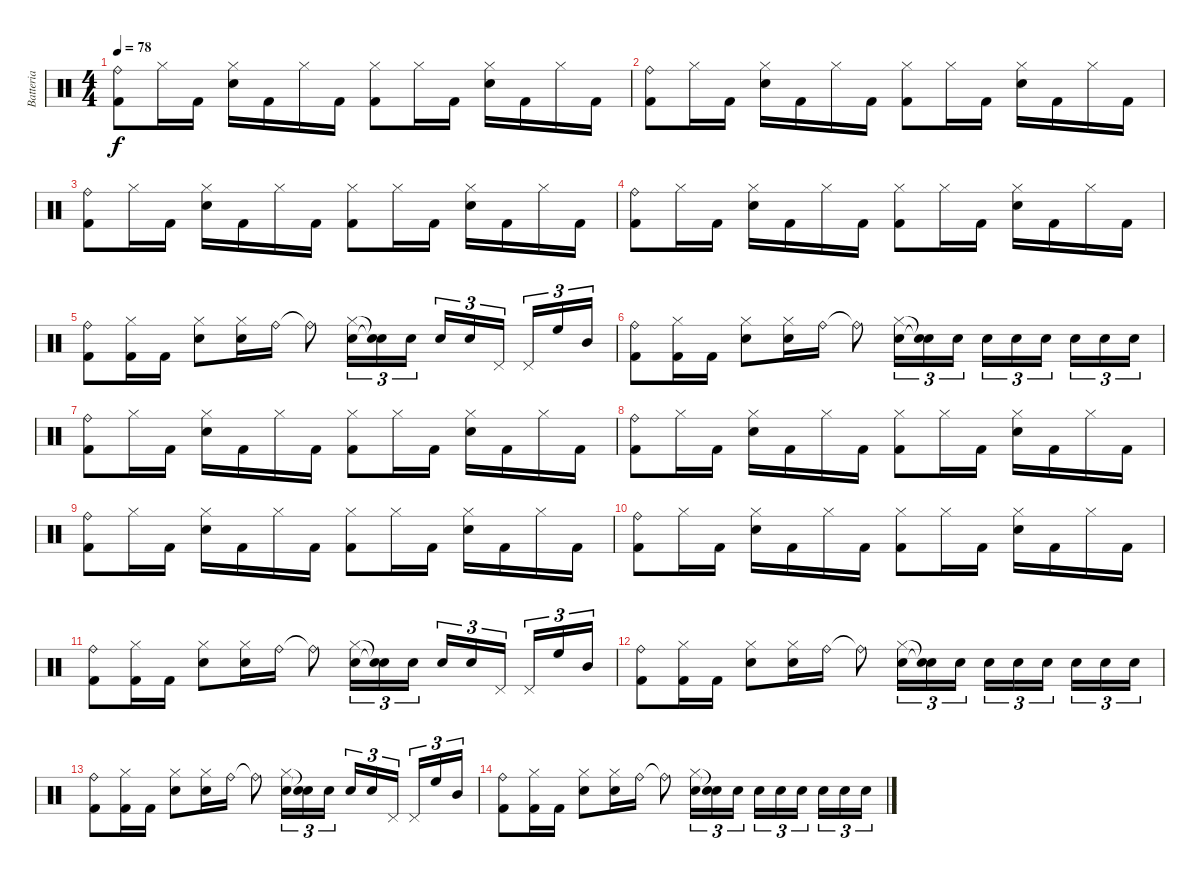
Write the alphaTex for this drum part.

\track ("Batteria" "Batteria") {instrument percussion}
\staff {score}
\articulation defaults
\ts (4 4)
\tempo 78
\clef neutral
\ks c
("Ride (bell)" "Kick (hit) 2").8{dy f} "Hi-Hat (closed)".16 "Kick (hit) 2".16 ("Hi-Hat (closed)" "Snare (hit) 2").16 "Kick (hit) 2".16 "Hi-Hat (closed)".16 "Kick (hit) 2".16 ("Hi-Hat (closed)" "Kick (hit) 2").8 "Hi-Hat (closed)".16 "Kick (hit) 2".16 ("Hi-Hat (closed)" "Snare (hit) 2").16 "Kick (hit) 2".16 "Hi-Hat (closed)".16 "Kick (hit) 2".16 |
("Ride (bell)" "Kick (hit) 2").8 "Hi-Hat (closed)".16 "Kick (hit) 2".16 ("Hi-Hat (closed)" "Snare (hit) 2").16 "Kick (hit) 2".16 "Hi-Hat (closed)".16 "Kick (hit) 2".16 ("Hi-Hat (closed)" "Kick (hit) 2").8 "Hi-Hat (closed)".16 "Kick (hit) 2".16 ("Hi-Hat (closed)" "Snare (hit) 2").16 "Kick (hit) 2".16 "Hi-Hat (closed)".16 "Kick (hit) 2".16 |
("Ride (bell)" "Kick (hit) 2").8 "Hi-Hat (closed)".16 "Kick (hit) 2".16 ("Hi-Hat (closed)" "Snare (hit) 2").16 "Kick (hit) 2".16 "Hi-Hat (closed)".16 "Kick (hit) 2".16 ("Hi-Hat (closed)" "Kick (hit) 2").8 "Hi-Hat (closed)".16 "Kick (hit) 2".16 ("Hi-Hat (closed)" "Snare (hit) 2").16 "Kick (hit) 2".16 "Hi-Hat (closed)".16 "Kick (hit) 2".16 |
("Ride (bell)" "Kick (hit) 2").8 "Hi-Hat (closed)".16 "Kick (hit) 2".16 ("Hi-Hat (closed)" "Snare (hit) 2").16 "Kick (hit) 2".16 "Hi-Hat (closed)".16 "Kick (hit) 2".16 ("Hi-Hat (closed)" "Kick (hit) 2").8 "Hi-Hat (closed)".16 "Kick (hit) 2".16 ("Hi-Hat (closed)" "Snare (hit) 2").16 "Kick (hit) 2".16 "Hi-Hat (closed)".16 "Kick (hit) 2".16 |
("Ride (bell)" "Kick (hit) 2").8 ("Hi-Hat (closed)" "Kick (hit) 2").16 "Kick (hit) 2".16 ("Hi-Hat (closed)" "Snare (hit) 2").8 ("Hi-Hat (closed)" "Snare (hit) 2").16 "Ride (bell)".16 "Ride (bell)"{t}.8 ("Hi-Hat (closed)" "Snare (hit) 2").16{tu (3 2)} ("Snare (hit)"{t} "Snare (hit)"{t}).16{tu (3 2)} "Snare (hit) 2".16{tu (3 2)} "Snare (hit) 2".16{tu (3 2)} "Snare (hit) 2".16{tu (3 2)} "Pedal Hi-Hat (hit)".16{tu (3 2)} "Pedal Hi-Hat (hit)".16{tu (3 2)} "High Floor Tom (hit)".16{tu (3 2)} "Mid Tom (hit)".16{tu (3 2)} |
("Ride (bell)" "Kick (hit) 2").8 ("Hi-Hat (closed)" "Kick (hit) 2").16 "Kick (hit) 2".16 ("Hi-Hat (closed)" "Snare (hit) 2").8 ("Hi-Hat (closed)" "Snare (hit) 2").16 "Ride (bell)".16 "Ride (bell)"{t}.8 ("Hi-Hat (closed)" "Snare (hit) 2").16{tu (3 2)} ("Snare (hit)"{t} "Snare (hit)"{t}).16{tu (3 2)} "Snare (hit) 2".16{tu (3 2)} "Snare (hit) 2".16{tu (3 2)} "Snare (hit) 2".16{tu (3 2)} "Snare (hit) 2".16{tu (3 2)} "Snare (hit) 2".16{tu (3 2)} "Snare (hit) 2".16{tu (3 2)} "Snare (hit) 2".16{tu (3 2)} |
("Ride (bell)" "Kick (hit) 2").8 "Hi-Hat (closed)".16 "Kick (hit) 2".16 ("Hi-Hat (closed)" "Snare (hit) 2").16 "Kick (hit) 2".16 "Hi-Hat (closed)".16 "Kick (hit) 2".16 ("Hi-Hat (closed)" "Kick (hit) 2").8 "Hi-Hat (closed)".16 "Kick (hit) 2".16 ("Hi-Hat (closed)" "Snare (hit) 2").16 "Kick (hit) 2".16 "Hi-Hat (closed)".16 "Kick (hit) 2".16 |
("Ride (bell)" "Kick (hit) 2").8 "Hi-Hat (closed)".16 "Kick (hit) 2".16 ("Hi-Hat (closed)" "Snare (hit) 2").16 "Kick (hit) 2".16 "Hi-Hat (closed)".16 "Kick (hit) 2".16 ("Hi-Hat (closed)" "Kick (hit) 2").8 "Hi-Hat (closed)".16 "Kick (hit) 2".16 ("Hi-Hat (closed)" "Snare (hit) 2").16 "Kick (hit) 2".16 "Hi-Hat (closed)".16 "Kick (hit) 2".16 |
("Ride (bell)" "Kick (hit) 2").8 "Hi-Hat (closed)".16 "Kick (hit) 2".16 ("Hi-Hat (closed)" "Snare (hit) 2").16 "Kick (hit) 2".16 "Hi-Hat (closed)".16 "Kick (hit) 2".16 ("Hi-Hat (closed)" "Kick (hit) 2").8 "Hi-Hat (closed)".16 "Kick (hit) 2".16 ("Hi-Hat (closed)" "Snare (hit) 2").16 "Kick (hit) 2".16 "Hi-Hat (closed)".16 "Kick (hit) 2".16 |
("Ride (bell)" "Kick (hit) 2").8 "Hi-Hat (closed)".16 "Kick (hit) 2".16 ("Hi-Hat (closed)" "Snare (hit) 2").16 "Kick (hit) 2".16 "Hi-Hat (closed)".16 "Kick (hit) 2".16 ("Hi-Hat (closed)" "Kick (hit) 2").8 "Hi-Hat (closed)".16 "Kick (hit) 2".16 ("Hi-Hat (closed)" "Snare (hit) 2").16 "Kick (hit) 2".16 "Hi-Hat (closed)".16 "Kick (hit) 2".16 |
("Ride (bell)" "Kick (hit) 2").8 ("Hi-Hat (closed)" "Kick (hit) 2").16 "Kick (hit) 2".16 ("Hi-Hat (closed)" "Snare (hit) 2").8 ("Hi-Hat (closed)" "Snare (hit) 2").16 "Ride (bell)".16 "Ride (bell)"{t}.8 ("Hi-Hat (closed)" "Snare (hit) 2").16{tu (3 2)} ("Snare (hit)"{t} "Snare (hit)"{t}).16{tu (3 2)} "Snare (hit) 2".16{tu (3 2)} "Snare (hit) 2".16{tu (3 2)} "Snare (hit) 2".16{tu (3 2)} "Pedal Hi-Hat (hit)".16{tu (3 2)} "Pedal Hi-Hat (hit)".16{tu (3 2)} "High Floor Tom (hit)".16{tu (3 2)} "Mid Tom (hit)".16{tu (3 2)} |
("Ride (bell)" "Kick (hit) 2").8 ("Hi-Hat (closed)" "Kick (hit) 2").16 "Kick (hit) 2".16 ("Hi-Hat (closed)" "Snare (hit) 2").8 ("Hi-Hat (closed)" "Snare (hit) 2").16 "Ride (bell)".16 "Ride (bell)"{t}.8 ("Hi-Hat (closed)" "Snare (hit) 2").16{tu (3 2)} ("Snare (hit)"{t} "Snare (hit)"{t}).16{tu (3 2)} "Snare (hit) 2".16{tu (3 2)} "Snare (hit) 2".16{tu (3 2)} "Snare (hit) 2".16{tu (3 2)} "Snare (hit) 2".16{tu (3 2)} "Snare (hit) 2".16{tu (3 2)} "Snare (hit) 2".16{tu (3 2)} "Snare (hit) 2".16{tu (3 2)} |
("Ride (bell)" "Kick (hit) 2").8 ("Hi-Hat (closed)" "Kick (hit) 2").16 "Kick (hit) 2".16 ("Hi-Hat (closed)" "Snare (hit) 2").8 ("Hi-Hat (closed)" "Snare (hit) 2").16 "Ride (bell)".16 "Ride (bell)"{t}.8 ("Hi-Hat (closed)" "Snare (hit) 2").16{tu (3 2)} ("Snare (hit)"{t} "Snare (hit)"{t}).16{tu (3 2)} "Snare (hit) 2".16{tu (3 2)} "Snare (hit) 2".16{tu (3 2)} "Snare (hit) 2".16{tu (3 2)} "Pedal Hi-Hat (hit)".16{tu (3 2)} "Pedal Hi-Hat (hit)".16{tu (3 2)} "High Floor Tom (hit)".16{tu (3 2)} "Mid Tom (hit)".16{tu (3 2)} |
("Ride (bell)" "Kick (hit) 2").8 ("Hi-Hat (closed)" "Kick (hit) 2").16 "Kick (hit) 2".16 ("Hi-Hat (closed)" "Snare (hit) 2").8 ("Hi-Hat (closed)" "Snare (hit) 2").16 "Ride (bell)".16 "Ride (bell)"{t}.8 ("Hi-Hat (closed)" "Snare (hit) 2").16{tu (3 2)} ("Snare (hit)"{t} "Snare (hit)"{t}).16{tu (3 2)} "Snare (hit) 2".16{tu (3 2)} "Snare (hit) 2".16{tu (3 2)} "Snare (hit) 2".16{tu (3 2)} "Snare (hit) 2".16{tu (3 2)} "Snare (hit) 2".16{tu (3 2)} "Snare (hit) 2".16{tu (3 2)} "Snare (hit) 2".16{tu (3 2)}
